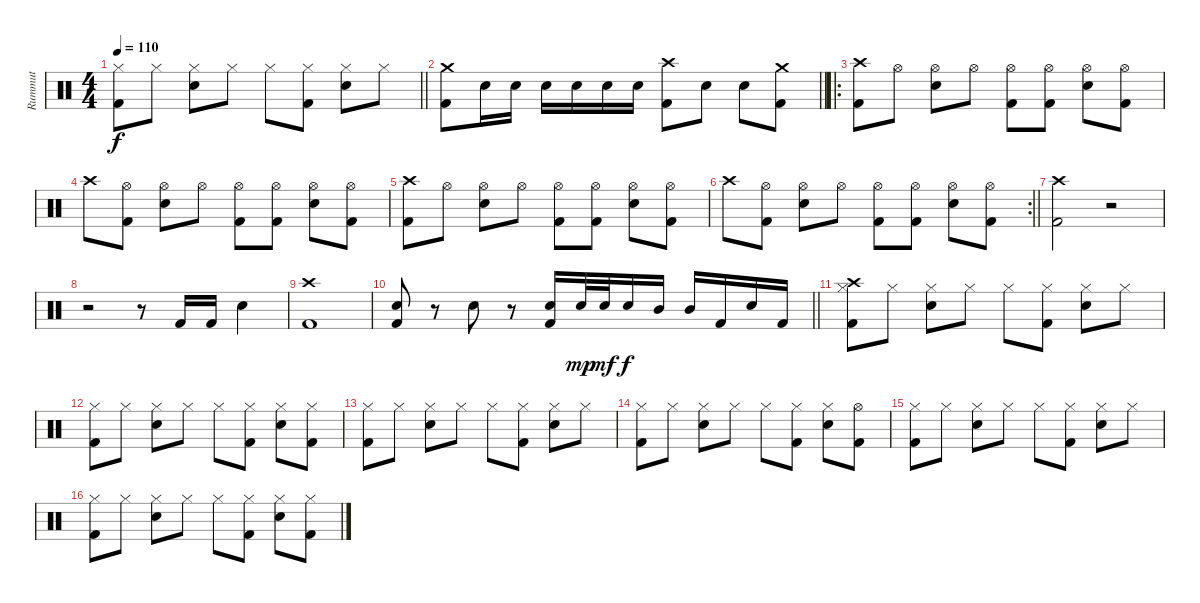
\track ("Rummut" "Rummut") {instrument percussion}
\staff {score}
\articulation defaults
\ts (4 4)
\tempo 110
\clef neutral
\barLineRight lightlight
\ks c
("Hi-Hat (closed)" "Kick (hit) 2").8{dy f} "Hi-Hat (closed)".8 ("Hi-Hat (closed)" "Snare (hit) 2").8 "Hi-Hat (closed)".8 "Hi-Hat (closed)".8 ("Hi-Hat (closed)" "Kick (hit) 2").8 ("Hi-Hat (closed)" "Snare (hit) 2").8 "Hi-Hat (closed)".8 |
\barLineRight lightlight
("Kick (hit) 2" "Crash medium (hit)").8 "Snare (hit) 2".16 "Snare (hit) 2".16 "Snare (hit) 2".16 "Snare (hit) 2".16 "Snare (hit) 2".16 "Snare (hit) 2".16 ("Kick (hit) 2" "Crash high (hit)").8 "Snare (hit) 2".8 "Snare (hit) 2".8 ("Kick (hit) 2" "Crash medium (hit)").8 |
\ro
("Kick (hit) 2" "Crash high (hit)").8 "Hi-Hat (open)".8 ("Snare (hit) 2" "Hi-Hat (open)").8 "Hi-Hat (open)".8 ("Kick (hit) 2" "Hi-Hat (open)").8 ("Kick (hit) 2" "Hi-Hat (open)").8 ("Snare (hit) 2" "Hi-Hat (open)").8 ("Kick (hit) 2" "Hi-Hat (open)").8 |
"Crash high (hit)".8 ("Hi-Hat (open)" "Kick (hit) 2").8 ("Hi-Hat (open)" "Snare (hit) 2").8 "Hi-Hat (open)".8 ("Hi-Hat (open)" "Kick (hit) 2").8 ("Hi-Hat (open)" "Kick (hit) 2").8 ("Hi-Hat (open)" "Snare (hit) 2").8 ("Hi-Hat (open)" "Kick (hit) 2").8 |
("Kick (hit) 2" "Crash high (hit)").8 "Hi-Hat (open)".8 ("Snare (hit) 2" "Hi-Hat (open)").8 "Hi-Hat (open)".8 ("Kick (hit) 2" "Hi-Hat (open)").8 ("Kick (hit) 2" "Hi-Hat (open)").8 ("Snare (hit) 2" "Hi-Hat (open)").8 ("Kick (hit) 2" "Hi-Hat (open)").8 |
\rc 2
\barLineRight lightlight "Crash high (hit)".8
("Hi-Hat (open)" "Kick (hit) 2").8 ("Hi-Hat (open)" "Snare (hit) 2").8 "Hi-Hat (open)".8 ("Hi-Hat (open)" "Kick (hit) 2").8 ("Hi-Hat (open)" "Kick (hit) 2").8 ("Hi-Hat (open)" "Snare (hit) 2").8 ("Hi-Hat (open)" "Kick (hit) 2").8 |
("Crash high (hit)" "Kick (hit) 2").2 r.2 |
r.2 r.8 "Kick (hit) 2".16 "Kick (hit) 2".16 "Snare (hit) 2".4 |
("Crash high (hit)" "Kick (hit) 2").1 |
\barLineRight lightlight
("Snare (hit) 2" "Kick (hit) 2").8 r.8 "Snare (hit) 2".8 r.8 ("Snare (hit) 2" "Kick (hit) 2").16 "Electric Snare (hit)".32{dy mp} "Electric Snare (hit)".32{dy mf} "Electric Snare (hit)".16{dy f} "Mid Tom (hit)".16 "Mid Tom (hit)".16 "Kick (hit) 2".16 "Electric Snare (hit)".16 "Kick (hit) 2".16 |
("Hi-Hat (closed)" "Kick (hit) 2" "Crash high (hit)").8 "Hi-Hat (closed)".8 ("Hi-Hat (closed)" "Snare (hit) 2").8 "Hi-Hat (closed)".8 "Hi-Hat (closed)".8 ("Hi-Hat (closed)" "Kick (hit) 2").8 ("Hi-Hat (closed)" "Snare (hit) 2").8 "Hi-Hat (closed)".8 |
("Hi-Hat (closed)" "Kick (hit) 2").8 "Hi-Hat (closed)".8 ("Hi-Hat (closed)" "Snare (hit) 2").8 "Hi-Hat (closed)".8 "Hi-Hat (closed)".8 ("Hi-Hat (closed)" "Kick (hit) 2").8 ("Hi-Hat (closed)" "Snare (hit) 2").8 ("Hi-Hat (closed)" "Kick (hit) 2").8 |
("Hi-Hat (closed)" "Kick (hit) 2").8 "Hi-Hat (closed)".8 ("Hi-Hat (closed)" "Snare (hit) 2").8 "Hi-Hat (closed)".8 "Hi-Hat (closed)".8 ("Hi-Hat (closed)" "Kick (hit) 2").8 ("Hi-Hat (closed)" "Snare (hit) 2").8 "Hi-Hat (closed)".8 |
("Hi-Hat (closed)" "Kick (hit) 2").8 "Hi-Hat (closed)".8 ("Hi-Hat (closed)" "Snare (hit) 2").8 "Hi-Hat (closed)".8 "Hi-Hat (closed)".8 ("Hi-Hat (closed)" "Kick (hit) 2").8 ("Hi-Hat (closed)" "Snare (hit) 2").8 ("Hi-Hat (open)" "Kick (hit) 2").8 |
("Hi-Hat (closed)" "Kick (hit) 2").8 "Hi-Hat (closed)".8 ("Hi-Hat (closed)" "Snare (hit) 2").8 "Hi-Hat (closed)".8 "Hi-Hat (closed)".8 ("Hi-Hat (closed)" "Kick (hit) 2").8 ("Hi-Hat (closed)" "Snare (hit) 2").8 "Hi-Hat (closed)".8 |
("Hi-Hat (closed)" "Kick (hit) 2").8 "Hi-Hat (closed)".8 ("Hi-Hat (closed)" "Snare (hit) 2").8 "Hi-Hat (closed)".8 "Hi-Hat (closed)".8 ("Hi-Hat (closed)" "Kick (hit) 2").8 ("Hi-Hat (closed)" "Snare (hit) 2").8 ("Hi-Hat (closed)" "Kick (hit) 2").8
